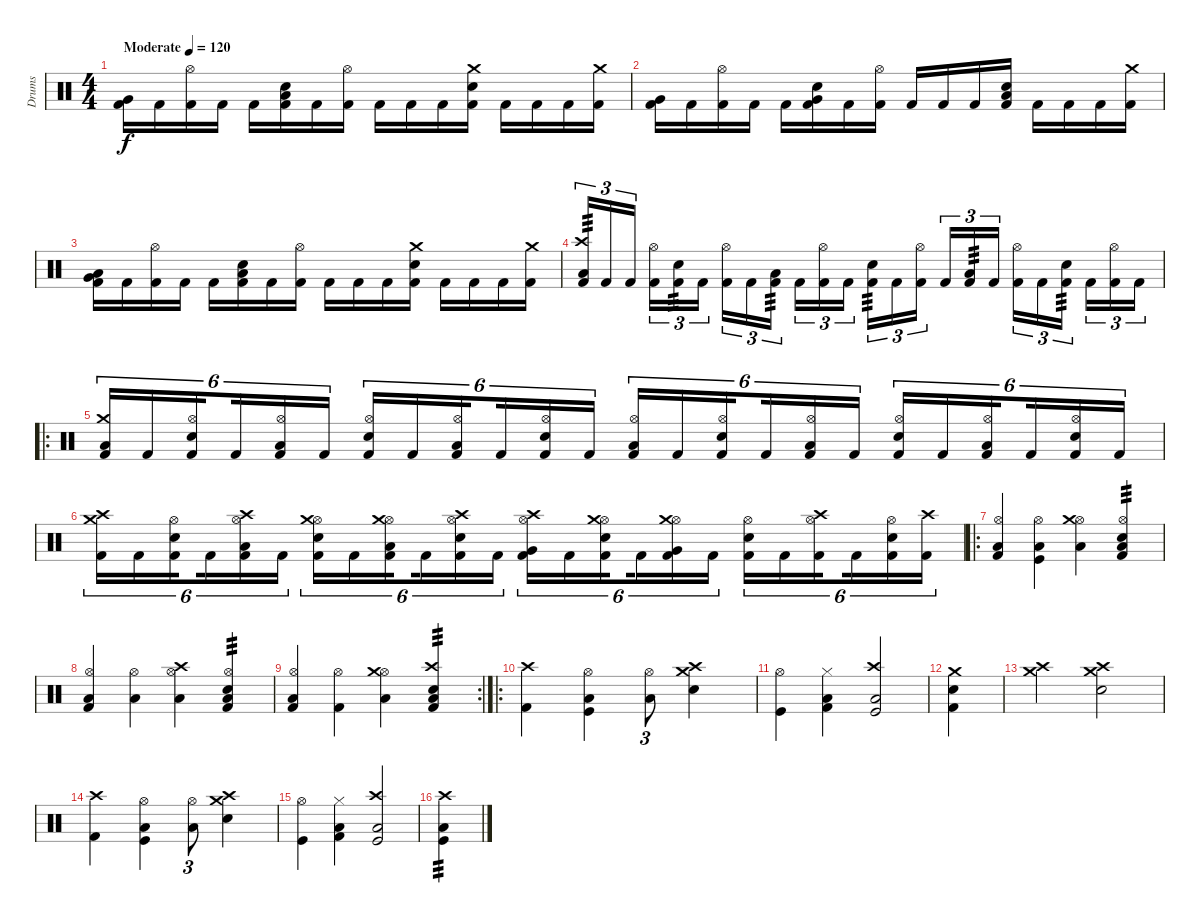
\track ("Drums" "Drums") {instrument percussion}
\staff {score}
\articulation defaults
\ts (4 4)
\tempo (120 "Moderate")
\clef neutral
\ks c
("Very Low Tom (hit)" "Kick (hit) 2").16{dy f} "Kick (hit) 2".16 ("Hi-Hat (open)" "Kick (hit) 2").16 "Kick (hit) 2".16 "Kick (hit) 2".16 ("Low Tom (hit)" "Snare (hit) 2" "Kick (hit) 2").16 "Kick (hit) 2".16 ("Hi-Hat (open)" "Kick (hit) 2").16 "Kick (hit) 2".16 "Kick (hit) 2".16 "Kick (hit) 2".16 ("Crash medium (hit)" "Snare (hit) 2" "Kick (hit) 2").16 "Kick (hit) 2".16 "Kick (hit) 2".16 "Kick (hit) 2".16 ("Crash medium (hit)" "Kick (hit) 2").16 |
("Very Low Tom (hit)" "Kick (hit) 2").16 "Kick (hit) 2".16 ("Hi-Hat (open)" "Kick (hit) 2").16 "Kick (hit) 2".16 "Kick (hit) 2".16 ("Very Low Tom (hit)" "Snare (hit) 2" "Kick (hit) 2").16 "Kick (hit) 2".16 ("Hi-Hat (open)" "Kick (hit) 2").16 "Kick (hit) 2".16 "Kick (hit) 2".16 "Kick (hit) 2".16 ("Low Tom (hit)" "Snare (hit) 2" "Kick (hit) 2").16 "Kick (hit) 2".16 "Kick (hit) 2".16 "Kick (hit) 2".16 ("Crash medium (hit)" "Kick (hit) 2").16 |
("Very Low Tom (hit)" "Low Tom (hit)" "Kick (hit) 2").16 "Kick (hit) 2".16 ("Hi-Hat (open)" "Kick (hit) 2").16 "Kick (hit) 2".16 "Kick (hit) 2".16 ("Low Tom (hit)" "Snare (hit) 2" "Kick (hit) 2").16 "Kick (hit) 2".16 ("Hi-Hat (open)" "Kick (hit) 2").16 "Kick (hit) 2".16 "Kick (hit) 2".16 "Kick (hit) 2".16 ("Crash medium (hit)" "Snare (hit) 2" "Kick (hit) 2").16 "Kick (hit) 2".16 "Kick (hit) 2".16 "Kick (hit) 2".16 ("Crash medium (hit)" "Kick (hit) 2").16 |
("Crash high (hit)" "Low Floor Tom (hit)" "Kick (hit) 2").16{tu (3 2) tp 3} "Kick (hit) 2".16{tu (3 2)} "Kick (hit) 2".16{tu (3 2) beam splitsecondary} ("Hi-Hat (open)" "Kick (hit) 2").16{tu (3 2)} ("Snare (hit) 2" "Kick (hit) 2").16{tu (3 2) tp 3} "Kick (hit) 2".16{tu (3 2)} ("Hi-Hat (open)" "Kick (hit) 2").16{tu (3 2)} "Kick (hit) 2".16{tu (3 2)} ("Low Floor Tom (hit)" "Kick (hit) 2").16{tu (3 2) tp 3 beam splitsecondary} "Kick (hit) 2".16{tu (3 2)} ("Hi-Hat (open)" "Kick (hit) 2").16{tu (3 2)} "Kick (hit) 2".16{tu (3 2)} ("Snare (hit) 2" "Kick (hit) 2").16{tu (3 2) tp 3} "Kick (hit) 2".16{tu (3 2)} ("Hi-Hat (open)" "Kick (hit) 2").16{tu (3 2) beam splitsecondary} "Kick (hit) 2".16{tu (3 2)} ("Low Floor Tom (hit)" "Kick (hit) 2").16{tu (3 2) tp 3} "Kick (hit) 2".16{tu (3 2)} ("Hi-Hat (open)" "Kick (hit) 2").16{tu (3 2)} "Kick (hit) 2".16{tu (3 2)} ("Snare (hit) 2" "Kick (hit) 2").16{tu (3 2) tp 3 beam splitsecondary} "Kick (hit) 2".16{tu (3 2)} ("Hi-Hat (open)" "Kick (hit) 2").16{tu (3 2)} "Kick (hit) 2".16{tu (3 2)} |
\ro
("Crash medium (hit)" "Low Floor Tom (hit)" "Kick (hit) 2").16{tu (6 4)} "Kick (hit) 2".16{tu (6 4)} ("Hi-Hat (open)" "Snare (hit) 2" "Kick (hit) 2").16{tu (6 4) beam splitsecondary} "Kick (hit) 2".16{tu (6 4)} ("Hi-Hat (open)" "Low Floor Tom (hit)" "Kick (hit) 2").16{tu (6 4)} "Kick (hit) 2".16{tu (6 4)} ("Hi-Hat (open)" "Snare (hit) 2" "Kick (hit) 2").16{tu (6 4)} "Kick (hit) 2".16{tu (6 4)} ("Hi-Hat (open)" "Low Floor Tom (hit)" "Kick (hit) 2").16{tu (6 4) beam splitsecondary} "Kick (hit) 2".16{tu (6 4)} ("Hi-Hat (open)" "Snare (hit) 2" "Kick (hit) 2").16{tu (6 4)} "Kick (hit) 2".16{tu (6 4)} ("Hi-Hat (open)" "Low Floor Tom (hit)" "Kick (hit) 2").16{tu (6 4)} "Kick (hit) 2".16{tu (6 4)} ("Hi-Hat (open)" "Snare (hit) 2" "Kick (hit) 2").16{tu (6 4) beam splitsecondary} "Kick (hit) 2".16{tu (6 4)} ("Hi-Hat (open)" "Low Floor Tom (hit)" "Kick (hit) 2").16{tu (6 4)} "Kick (hit) 2".16{tu (6 4)} ("Hi-Hat (open)" "Snare (hit) 2" "Kick (hit) 2").16{tu (6 4)} "Kick (hit) 2".16{tu (6 4)} ("Hi-Hat (open)" "Low Floor Tom (hit)" "Kick (hit) 2").16{tu (6 4) beam splitsecondary} "Kick (hit) 2".16{tu (6 4)} ("Hi-Hat (open)" "Snare (hit) 2" "Kick (hit) 2").16{tu (6 4)} "Kick (hit) 2".16{tu (6 4)} |
("Crash medium (hit)" "Crash high (hit)" "Kick (hit) 2").16{tu (6 4)} "Kick (hit) 2".16{tu (6 4)} ("Hi-Hat (open)" "Snare (hit) 2" "Kick (hit) 2").16{tu (6 4) beam splitsecondary} "Kick (hit) 2".16{tu (6 4)} ("Hi-Hat (open)" "Low Floor Tom (hit)" "Crash high (hit)" "Kick (hit) 2").16{tu (6 4)} "Kick (hit) 2".16{tu (6 4)} ("Hi-Hat (open)" "Crash medium (hit)" "Snare (hit) 2" "Kick (hit) 2").16{tu (6 4)} "Kick (hit) 2".16{tu (6 4)} ("Hi-Hat (open)" "Low Floor Tom (hit)" "Crash medium (hit)" "Kick (hit) 2").16{tu (6 4) beam splitsecondary} "Kick (hit) 2".16{tu (6 4)} ("Hi-Hat (open)" "Crash high (hit)" "Snare (hit) 2" "Kick (hit) 2").16{tu (6 4)} "Kick (hit) 2".16{tu (6 4)} ("Hi-Hat (open)" "Very Low Tom (hit)" "Crash high (hit)" "Kick (hit) 2").16{tu (6 4)} "Kick (hit) 2".16{tu (6 4)} ("Hi-Hat (open)" "Crash medium (hit)" "Snare (hit) 2" "Kick (hit) 2").16{tu (6 4) beam splitsecondary} "Kick (hit) 2".16{tu (6 4)} ("Hi-Hat (open)" "Very Low Tom (hit)" "Crash medium (hit)" "Kick (hit) 2").16{tu (6 4)} "Kick (hit) 2".16{tu (6 4)} ("Hi-Hat (open)" "Snare (hit) 2" "Kick (hit) 2").16{tu (6 4)} "Kick (hit) 2".16{tu (6 4)} ("Hi-Hat (open)" "Crash high (hit)" "Kick (hit) 2").16{tu (6 4) beam splitsecondary} "Kick (hit) 2".16{tu (6 4)} ("Hi-Hat (open)" "Snare (hit) 2" "Kick (hit) 2").16{tu (6 4)} ("Crash high (hit)" "Kick (hit) 2").16{tu (6 4)} |
\ro
("Hi-Hat (open)" "Low Floor Tom (hit)" "Kick (hit) 2").4 ("Hi-Hat (open)" "Low Floor Tom (hit)" "Kick (hit)").4 ("Hi-Hat (open)" "Low Floor Tom (hit)" "Crash medium (hit)").4 ("Hi-Hat (open)" "Low Floor Tom (hit)" "Snare (hit) 2" "Kick (hit) 2").4{tp 3} |
("Hi-Hat (open)" "Low Floor Tom (hit)" "Kick (hit) 2").4 ("Hi-Hat (open)" "Low Floor Tom (hit)").4 ("Hi-Hat (open)" "Low Floor Tom (hit)" "Crash high (hit)").4 ("Hi-Hat (open)" "Low Tom (hit)" "Snare (hit) 2" "Kick (hit) 2").4{tp 3} |
\rc 2
("Hi-Hat (open)" "Low Floor Tom (hit)" "Kick (hit) 2").4 ("Hi-Hat (open)" "Kick (hit) 2").4 ("Hi-Hat (open)" "Low Floor Tom (hit)" "Crash medium (hit)").4 ("Crash high (hit)" "Low Floor Tom (hit)" "Snare (hit) 2" "Kick (hit) 2").4{tp 3} |
\ro
("Crash high (hit)" "Kick (hit) 2").4 ("Hi-Hat (open)" "Low Floor Tom (hit)" "Kick (hit)").4 ("Hi-Hat (open)" "Low Tom (hit)").8{tu (3 2)} ("Crash medium (hit)" "Snare (hit) 2" "Crash high (hit)").4 |
("Hi-Hat (open)" "Kick (hit)").4 ("Hi-Hat (closed)" "Low Floor Tom (hit)" "Kick (hit) 2").4 ("Crash high (hit)" "Low Tom (hit)" "Kick (hit)").2 |
("Crash medium (hit)" "Snare (hit) 2" "Kick (hit) 2").4 |
("Crash medium (hit)" "Crash high (hit)").2 ("Crash medium (hit)" "Snare (hit) 2" "Crash high (hit)").2 |
("Crash high (hit)" "Kick (hit) 2").4 ("Hi-Hat (open)" "Low Tom (hit)" "Kick (hit)").4 ("Hi-Hat (open)" "Low Floor Tom (hit)").8{tu (3 2)} ("Crash medium (hit)" "Snare (hit) 2" "Crash high (hit)").4 |
("Hi-Hat (open)" "Kick (hit)").4 ("Hi-Hat (closed)" "Low Floor Tom (hit)" "Kick (hit) 2").4 ("Crash high (hit)" "Low Tom (hit)" "Kick (hit)").2 |
("Low Floor Tom (hit)" "Crash high (hit)" "Kick (hit)").4{tp 3}
